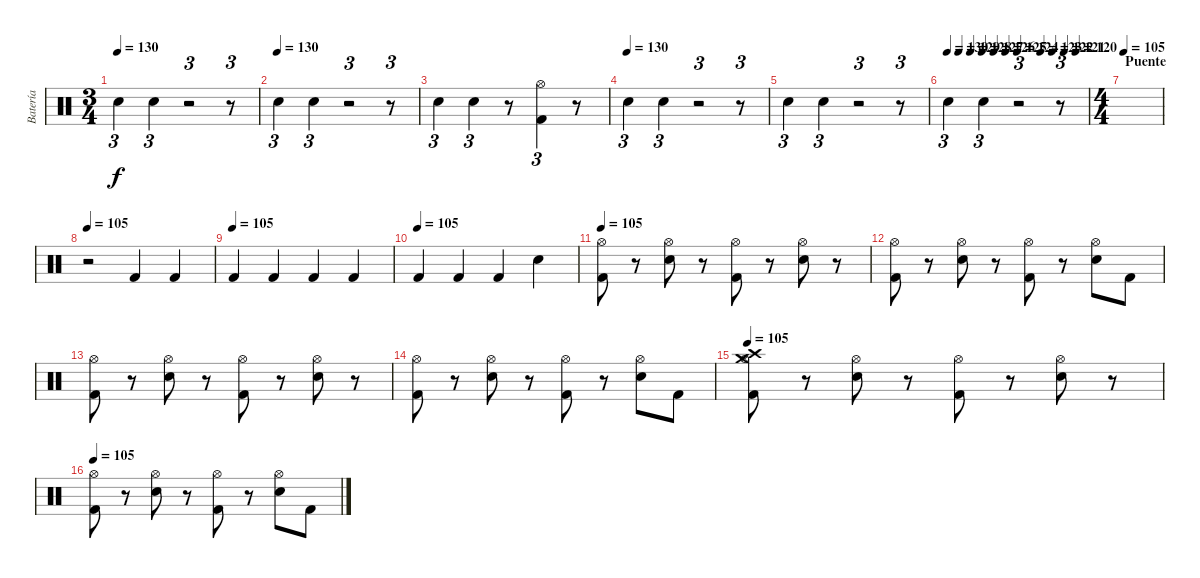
\track ("Batería" "Batería") {instrument percussion}
\staff {score}
\articulation defaults
\ts (3 4)
\tempo 130
\clef neutral
\ks c "Snare (hit) 2".4{tu (3 2) dy f} "Snare (hit) 2".4{tu (3 2)}
r.2{tu (3 2)} r.8{tu (3 2)} |
\tempo (130)
"Snare (hit) 2".4{tu (3 2)} "Snare (hit) 2".4{tu (3 2)} r.2{tu (3 2)} r.8{tu (3 2)} |
"Snare (hit) 2".4{tu (3 2)} "Snare (hit) 2".4{tu (3 2)} r.8 ("Hi-Hat (open)" "Kick (hit) 2").4{tu (3 2)} r.8 |
\tempo (130)
"Snare (hit) 2".4{tu (3 2)} "Snare (hit) 2".4{tu (3 2)} r.2{tu (3 2)} r.8{tu (3 2)} |
"Snare (hit) 2".4{tu (3 2)} "Snare (hit) 2".4{tu (3 2)} r.2{tu (3 2)} r.8{tu (3 2)} |
\tempo 130
\tempo (129 0.08333333333333333)
\tempo (128 0.16666666666666666)
\tempo (127 0.25)
\tempo (126 0.3333333333333333)
\tempo (125 0.4166666666666667)
\tempo (124 0.5)
\tempo (123 0.6666666666666666)
\tempo (122 0.75)
\tempo (121 0.8333333333333334)
\tempo (120 0.9166666666666666)
"Snare (hit) 2".4{tu (3 2)} "Snare (hit) 2".4{tu (3 2)} r.2{tu (3 2)} r.8{tu (3 2)} |
\ts (4 4)
\section ("" "Puente")
\tempo 105
|
\tempo 105
r.2 "Kick (hit) 2".4 "Kick (hit) 2".4 |
\tempo (105)
"Kick (hit) 2".4 "Kick (hit) 2".4 "Kick (hit) 2".4 "Kick (hit) 2".4 |
\tempo (105)
"Kick (hit) 2".4 "Kick (hit) 2".4 "Kick (hit) 2".4 "Snare (hit) 2".4 |
\tempo 105
("Hi-Hat (open)" "Kick (hit) 2").8 r.8 ("Hi-Hat (open)" "Snare (hit) 2").8 r.8 ("Hi-Hat (open)" "Kick (hit) 2").8 r.8 ("Hi-Hat (open)" "Snare (hit) 2").8 r.8 |
("Hi-Hat (open)" "Kick (hit) 2").8 r.8 ("Hi-Hat (open)" "Snare (hit) 2").8 r.8 ("Hi-Hat (open)" "Kick (hit) 2").8 r.8 ("Hi-Hat (open)" "Snare (hit) 2").8 "Kick (hit) 2".8 |
("Hi-Hat (open)" "Kick (hit) 2").8 r.8 ("Hi-Hat (open)" "Snare (hit) 2").8 r.8 ("Hi-Hat (open)" "Kick (hit) 2").8 r.8 ("Hi-Hat (open)" "Snare (hit) 2").8 r.8 |
("Hi-Hat (open)" "Kick (hit) 2").8 r.8 ("Hi-Hat (open)" "Snare (hit) 2").8 r.8 ("Hi-Hat (open)" "Kick (hit) 2").8 r.8 ("Hi-Hat (open)" "Snare (hit) 2").8 "Kick (hit) 2".8 |
\tempo 105
("Crash high (hit)" "Crash medium (hit)" "Hi-Hat (open)" "Kick (hit) 2").8 r.8 ("Hi-Hat (open)" "Snare (hit) 2").8 r.8 ("Hi-Hat (open)" "Kick (hit) 2").8 r.8 ("Hi-Hat (open)" "Snare (hit) 2").8 r.8 |
\tempo 105
("Hi-Hat (open)" "Kick (hit) 2").8 r.8 ("Hi-Hat (open)" "Snare (hit) 2").8 r.8 ("Hi-Hat (open)" "Kick (hit) 2").8 r.8 ("Hi-Hat (open)" "Snare (hit) 2").8 "Kick (hit) 2".8
